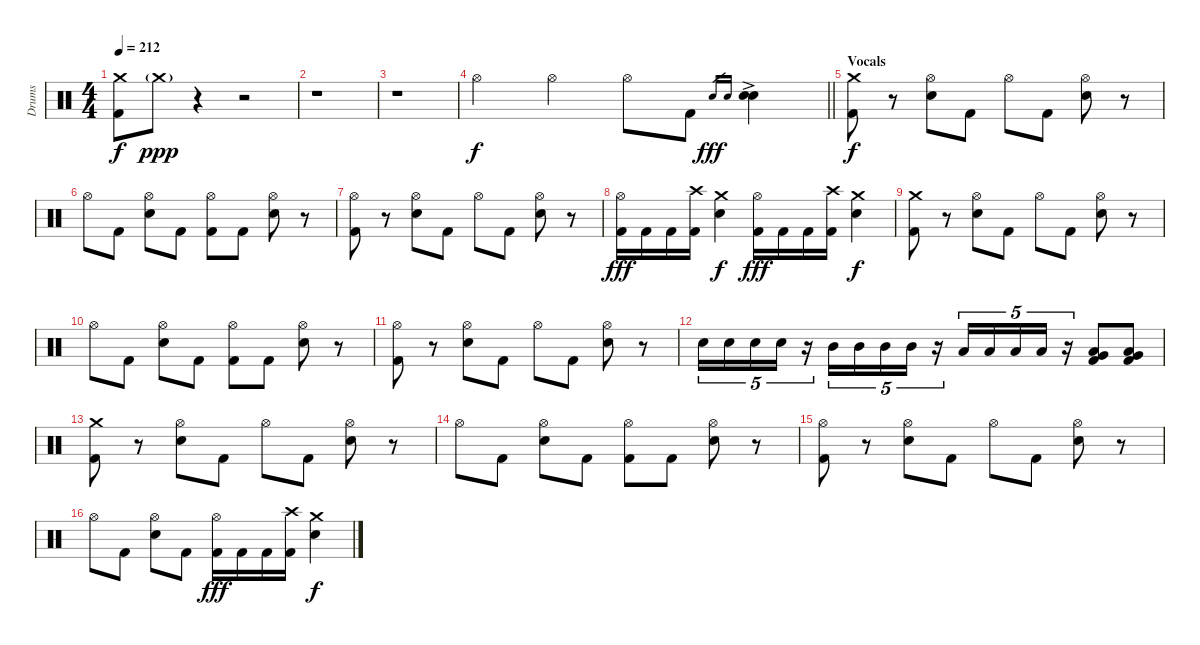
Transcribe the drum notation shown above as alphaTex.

\track ("Drums" "Drums") {instrument percussion}
\staff {score}
\articulation defaults
\ts (4 4)
\tempo 212
\clef neutral
\ks c
("Crash medium (hit)" "Kick (hit) 2").8{dy f} "Crash medium (hit)"{g}.8{dy ppp} r.4 r.2 |
r.1 |
r.1 |
\barLineRight lightlight "Hi-Hat (open)".4{dy f} "Hi-Hat (open)".4 "Hi-Hat (open)".8 "Kick (hit) 2".8 "Electric Snare (hit)".16{gr dy fff} "Electric Snare (hit)"{h}.16{gr}
("Electric Snare (hit)" "Electric Snare (hit)"{ac}).4{volume 16} |
\section ("" "Vocals")
("Crash medium (hit)" "Kick (hit) 2").8{dy f volume 14} r.8 ("Hi-Hat (open)" "Electric Snare (hit)").8 "Kick (hit) 2".8 "Hi-Hat (open)".8 "Kick (hit) 2".8 ("Hi-Hat (open)" "Electric Snare (hit)").8 r.8 |
"Hi-Hat (open)".8 "Kick (hit) 2".8 ("Hi-Hat (open)" "Electric Snare (hit)").8 "Kick (hit) 2".8 ("Hi-Hat (open)" "Kick (hit) 2").8 "Kick (hit) 2".8 ("Hi-Hat (open)" "Electric Snare (hit)").8 r.8 |
("Hi-Hat (open)" "Kick (hit) 2").8 r.8 ("Hi-Hat (open)" "Electric Snare (hit)").8 "Kick (hit) 2".8 "Hi-Hat (open)".8 "Kick (hit) 2".8 ("Hi-Hat (open)" "Electric Snare (hit)").8 r.8 |
("Hi-Hat (open)" "Kick (hit) 2").16{dy fff} "Kick (hit) 2".16 "Kick (hit) 2".16 ("Crash high (hit)" "Kick (hit) 2").16 ("Crash medium (hit)" "Electric Snare (hit)").4{dy f} ("Hi-Hat (open)" "Kick (hit) 2").16{dy fff} "Kick (hit) 2".16 "Kick (hit) 2".16 ("Crash high (hit)" "Kick (hit) 2").16 ("Crash medium (hit)" "Electric Snare (hit)").4{dy f} |
("Crash medium (hit)" "Kick (hit) 2").8 r.8 ("Hi-Hat (open)" "Electric Snare (hit)").8 "Kick (hit) 2".8 "Hi-Hat (open)".8 "Kick (hit) 2".8 ("Hi-Hat (open)" "Electric Snare (hit)").8 r.8 |
"Hi-Hat (open)".8 "Kick (hit) 2".8 ("Hi-Hat (open)" "Electric Snare (hit)").8 "Kick (hit) 2".8 ("Hi-Hat (open)" "Kick (hit) 2").8 "Kick (hit) 2".8 ("Hi-Hat (open)" "Electric Snare (hit)").8 r.8 |
("Hi-Hat (open)" "Kick (hit) 2").8 r.8 ("Hi-Hat (open)" "Electric Snare (hit)").8 "Kick (hit) 2".8 "Hi-Hat (open)".8 "Kick (hit) 2".8 ("Hi-Hat (open)" "Electric Snare (hit)").8 r.8 |
"Electric Snare (hit)".16{tu (5 4)} "Electric Snare (hit)".16{tu (5 4)} "Electric Snare (hit)".16{tu (5 4)} "Electric Snare (hit)".16{tu (5 4)} r.16{tu (5 4)} "Mid Tom (hit)".16{tu (5 4)} "Mid Tom (hit)".16{tu (5 4)} "Mid Tom (hit)".16{tu (5 4)} "Mid Tom (hit)".16{tu (5 4)} r.16{tu (5 4)} "Low Tom (hit)".16{tu (5 4)} "Low Tom (hit)".16{tu (5 4)} "Low Tom (hit)".16{tu (5 4)} "Low Tom (hit)".16{tu (5 4)} r.16{tu (5 4)} ("Low Floor Tom (hit)" "Very Low Tom (hit)" "Kick (hit) 2").8 ("Low Floor Tom (hit)" "Very Low Tom (hit)" "Kick (hit) 2").8 |
("Crash medium (hit)" "Kick (hit) 2").8 r.8 ("Hi-Hat (open)" "Electric Snare (hit)").8 "Kick (hit) 2".8 "Hi-Hat (open)".8 "Kick (hit) 2".8 ("Hi-Hat (open)" "Electric Snare (hit)").8 r.8 |
"Hi-Hat (open)".8 "Kick (hit) 2".8 ("Hi-Hat (open)" "Electric Snare (hit)").8 "Kick (hit) 2".8 ("Hi-Hat (open)" "Kick (hit) 2").8 "Kick (hit) 2".8 ("Hi-Hat (open)" "Electric Snare (hit)").8 r.8 |
("Hi-Hat (open)" "Kick (hit) 2").8 r.8 ("Hi-Hat (open)" "Electric Snare (hit)").8 "Kick (hit) 2".8 "Hi-Hat (open)".8 "Kick (hit) 2".8 ("Hi-Hat (open)" "Electric Snare (hit)").8 r.8 |
"Hi-Hat (open)".8 "Kick (hit) 2".8 ("Hi-Hat (open)" "Electric Snare (hit)").8 "Kick (hit) 2".8 ("Hi-Hat (open)" "Kick (hit) 2").16{dy fff} "Kick (hit) 2".16 "Kick (hit) 2".16 ("Crash high (hit)" "Kick (hit) 2").16 ("Crash medium (hit)" "Electric Snare (hit)").4{dy f}
